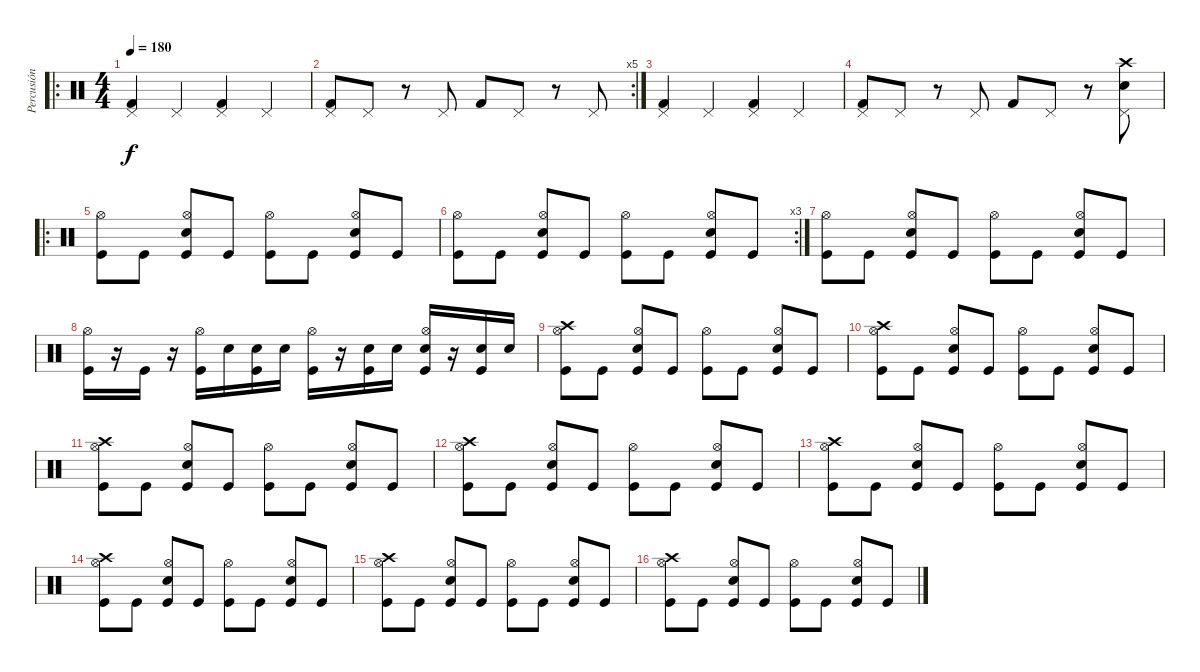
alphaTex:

\track ("Percusión" "Percusión") {instrument percussion}
\staff {score}
\articulation defaults
\ro
\ts (4 4)
\tempo 180
\clef neutral
\ks c
("Pedal Hi-Hat (hit)" "Kick (hit) 2").4{dy f} "Pedal Hi-Hat (hit)".4 ("Pedal Hi-Hat (hit)" "Kick (hit) 2").4 "Pedal Hi-Hat (hit)".4 |
\rc 5
("Pedal Hi-Hat (hit)" "Kick (hit) 2").8 "Pedal Hi-Hat (hit)".8 r.8 "Pedal Hi-Hat (hit)".8 "Kick (hit) 2".8 "Pedal Hi-Hat (hit)".8 r.8 "Pedal Hi-Hat (hit)".8 |
("Pedal Hi-Hat (hit)" "Kick (hit) 2").4 "Pedal Hi-Hat (hit)".4 ("Pedal Hi-Hat (hit)" "Kick (hit) 2").4 "Pedal Hi-Hat (hit)".4 |
("Pedal Hi-Hat (hit)" "Kick (hit) 2").8 "Pedal Hi-Hat (hit)".8 r.8 "Pedal Hi-Hat (hit)".8 "Kick (hit) 2".8 "Pedal Hi-Hat (hit)".8 r.8 ("Electric Snare (hit)" "Crash high (hit)" "Pedal Hi-Hat (hit)").8 |
\ro
("Hi-Hat (open)" "Kick (hit)").8 "Kick (hit)".8 ("Hi-Hat (open)" "Electric Snare (hit)" "Kick (hit)").8 "Kick (hit)".8 ("Hi-Hat (open)" "Kick (hit)").8 "Kick (hit)".8 ("Hi-Hat (open)" "Electric Snare (hit)" "Kick (hit)").8 "Kick (hit)".8 |
\rc 3
("Hi-Hat (open)" "Kick (hit)").8 "Kick (hit)".8 ("Hi-Hat (open)" "Electric Snare (hit)" "Kick (hit)").8 "Kick (hit)".8 ("Hi-Hat (open)" "Kick (hit)").8 "Kick (hit)".8 ("Hi-Hat (open)" "Electric Snare (hit)" "Kick (hit)").8 "Kick (hit)".8 |
("Hi-Hat (open)" "Kick (hit)").8 "Kick (hit)".8 ("Hi-Hat (open)" "Electric Snare (hit)" "Kick (hit)").8 "Kick (hit)".8 ("Hi-Hat (open)" "Kick (hit)").8 "Kick (hit)".8 ("Hi-Hat (open)" "Electric Snare (hit)" "Kick (hit)").8 "Kick (hit)".8 |
("Hi-Hat (open)" "Kick (hit)").16 r.16 "Kick (hit)".16 r.16 ("Hi-Hat (open)" "Kick (hit)").16 "Electric Snare (hit)".16 ("Electric Snare (hit)" "Kick (hit)").16 "Electric Snare (hit)".16 ("Hi-Hat (open)" "Kick (hit)").16 r.16 ("Electric Snare (hit)" "Kick (hit)").16 "Electric Snare (hit)".16 ("Hi-Hat (open)" "Electric Snare (hit)" "Kick (hit)").16 r.16 ("Electric Snare (hit)" "Kick (hit)").16 "Electric Snare (hit)".16 |
("Crash high (hit)" "Hi-Hat (open)" "Kick (hit)").8 "Kick (hit)".8 ("Hi-Hat (open)" "Electric Snare (hit)" "Kick (hit)").8 "Kick (hit)".8 ("Hi-Hat (open)" "Kick (hit)").8 "Kick (hit)".8 ("Hi-Hat (open)" "Electric Snare (hit)" "Kick (hit)").8 "Kick (hit)".8 |
("Crash high (hit)" "Hi-Hat (open)" "Kick (hit)").8 "Kick (hit)".8 ("Hi-Hat (open)" "Electric Snare (hit)" "Kick (hit)").8 "Kick (hit)".8 ("Hi-Hat (open)" "Kick (hit)").8 "Kick (hit)".8 ("Hi-Hat (open)" "Electric Snare (hit)" "Kick (hit)").8 "Kick (hit)".8 |
("Crash high (hit)" "Hi-Hat (open)" "Kick (hit)").8 "Kick (hit)".8 ("Hi-Hat (open)" "Electric Snare (hit)" "Kick (hit)").8 "Kick (hit)".8 ("Hi-Hat (open)" "Kick (hit)").8 "Kick (hit)".8 ("Hi-Hat (open)" "Electric Snare (hit)" "Kick (hit)").8 "Kick (hit)".8 |
("Crash high (hit)" "Hi-Hat (open)" "Kick (hit)").8 "Kick (hit)".8 ("Hi-Hat (open)" "Electric Snare (hit)" "Kick (hit)").8 "Kick (hit)".8 ("Hi-Hat (open)" "Kick (hit)").8 "Kick (hit)".8 ("Hi-Hat (open)" "Electric Snare (hit)" "Kick (hit)").8 "Kick (hit)".8 |
("Crash high (hit)" "Hi-Hat (open)" "Kick (hit)").8 "Kick (hit)".8 ("Hi-Hat (open)" "Electric Snare (hit)" "Kick (hit)").8 "Kick (hit)".8 ("Hi-Hat (open)" "Kick (hit)").8 "Kick (hit)".8 ("Hi-Hat (open)" "Electric Snare (hit)" "Kick (hit)").8 "Kick (hit)".8 |
("Crash high (hit)" "Hi-Hat (open)" "Kick (hit)").8 "Kick (hit)".8 ("Hi-Hat (open)" "Electric Snare (hit)" "Kick (hit)").8 "Kick (hit)".8 ("Hi-Hat (open)" "Kick (hit)").8 "Kick (hit)".8 ("Hi-Hat (open)" "Electric Snare (hit)" "Kick (hit)").8 "Kick (hit)".8 |
("Crash high (hit)" "Hi-Hat (open)" "Kick (hit)").8 "Kick (hit)".8 ("Hi-Hat (open)" "Electric Snare (hit)" "Kick (hit)").8 "Kick (hit)".8 ("Hi-Hat (open)" "Kick (hit)").8 "Kick (hit)".8 ("Hi-Hat (open)" "Electric Snare (hit)" "Kick (hit)").8 "Kick (hit)".8 |
("Crash high (hit)" "Hi-Hat (open)" "Kick (hit)").8 "Kick (hit)".8 ("Hi-Hat (open)" "Electric Snare (hit)" "Kick (hit)").8 "Kick (hit)".8 ("Hi-Hat (open)" "Kick (hit)").8 "Kick (hit)".8 ("Hi-Hat (open)" "Electric Snare (hit)" "Kick (hit)").8 "Kick (hit)".8
